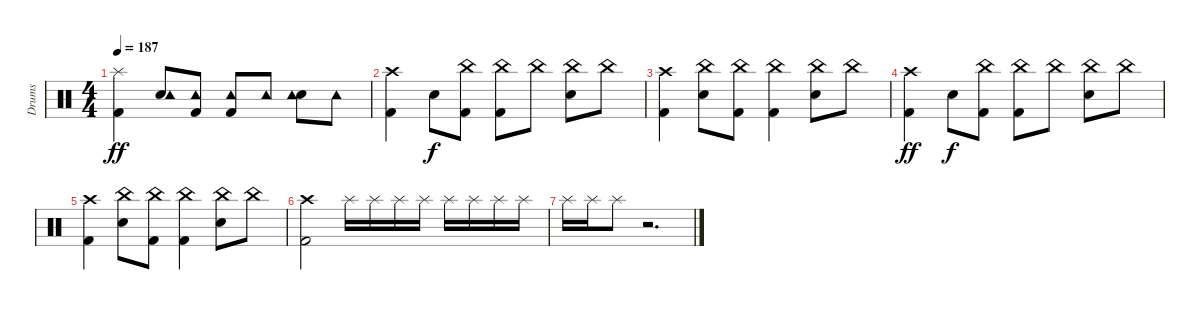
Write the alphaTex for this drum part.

\track ("Drums" "Drums") {instrument percussion}
\staff {score}
\articulation defaults
\ts (4 4)
\tempo 187
\clef neutral
\ks c
("Kick (hit) 2" "Splash (hit)").4{dy ff} ("Snare (hit) 2" "Tambourine (hit)").8 ("Kick (hit) 2" "Tambourine (hit)").8 ("Kick (hit) 2" "Tambourine (hit)").8 "Tambourine (hit)".8 ("Snare (hit) 2" "Tambourine (hit)").8 "Tambourine (hit)".8 |
("Kick (hit) 2" "Crash high (hit)").4 "Snare (hit) 2".8{dy f} ("Kick (hit) 2" "China (hit)").8 ("Kick (hit) 2" "China (hit)").8 "China (hit)".8{bd 240} ("Snare (hit) 2" "China (hit)").8 "China (hit)".8{bd 240} |
("Kick (hit) 2" "Crash high (hit)").4 ("Snare (hit) 2" "China (hit)").8 ("Kick (hit) 2" "China (hit)").8{bd 240} ("Kick (hit) 2" "China (hit)").4 ("Snare (hit) 2" "China (hit)").8 "China (hit)".8 |
("Kick (hit) 2" "Crash high (hit)").4{dy ff} "Snare (hit) 2".8{dy f} ("Kick (hit) 2" "China (hit)").8 ("Kick (hit) 2" "China (hit)").8 "China (hit)".8{bd 240} ("Snare (hit) 2" "China (hit)").8 "China (hit)".8{bd 240} |
("Kick (hit) 2" "Crash high (hit)").4 ("Snare (hit) 2" "China (hit)").8 ("Kick (hit) 2" "China (hit)").8{bd 240} ("Kick (hit) 2" "China (hit)").4 ("Snare (hit) 2" "China (hit)").8 "China (hit)".8 |
("Kick (hit) 2" "Crash high (hit)").2 "Splash (hit)".16 "Splash (hit)".16 "Splash (hit)".16 "Splash (hit)".16 "Splash (hit)".16 "Splash (hit)".16 "Splash (hit)".16 "Splash (hit)".16 |
"Splash (hit)".16 "Splash (hit)".16 "Splash (hit)".8 r.2{d}
